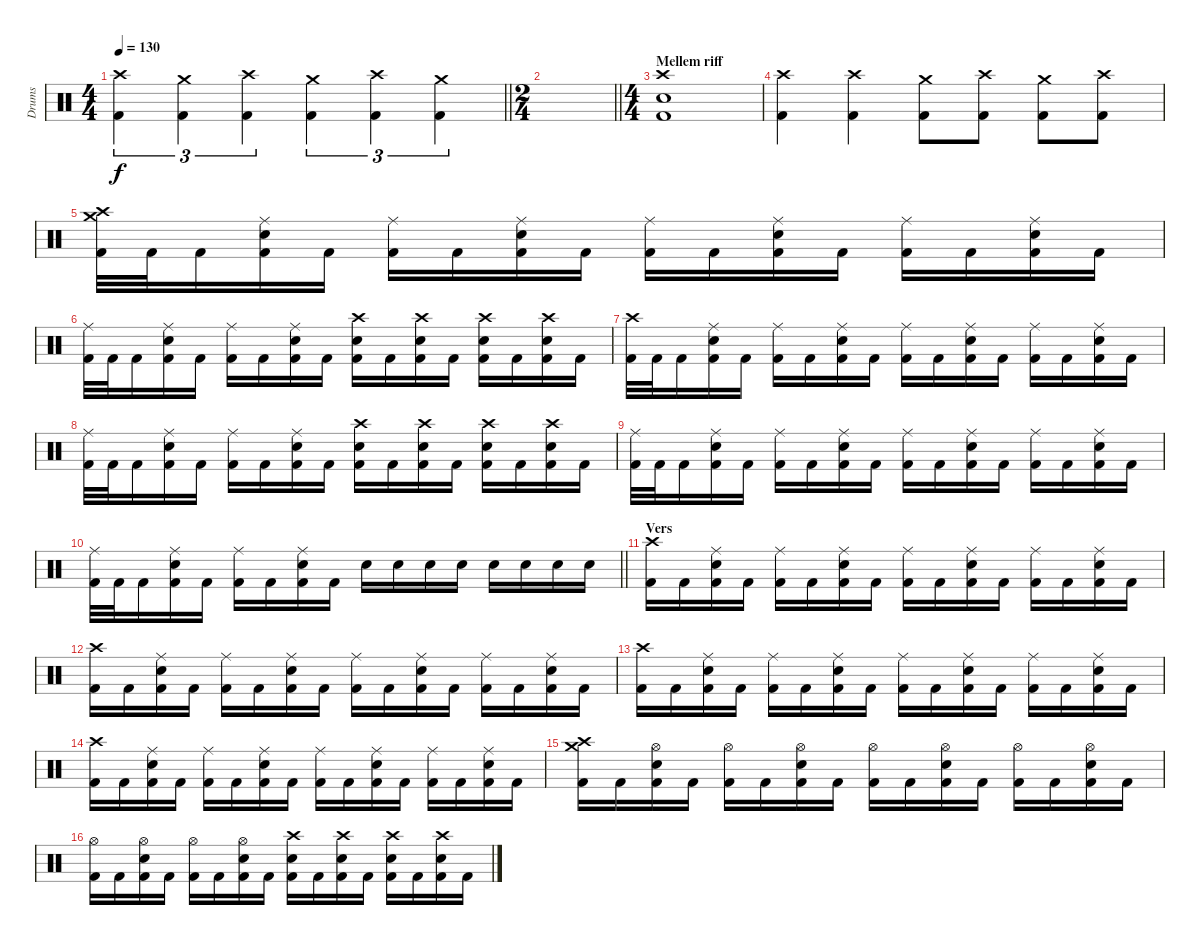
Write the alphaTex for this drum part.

\track ("Drums" "Drums") {instrument percussion}
\staff {score}
\articulation defaults
\ts (4 4)
\tempo 130
\clef neutral
\barLineRight lightlight
\ks c
("Crash high (hit)" "Kick (hit) 2").4{tu (3 2) dy f} ("Crash medium (hit)" "Kick (hit) 2").4{tu (3 2)} ("Crash high (hit)" "Kick (hit) 2").4{tu (3 2)} ("Crash medium (hit)" "Kick (hit) 2").4{tu (3 2)} ("Crash high (hit)" "Kick (hit) 2").4{tu (3 2)} ("Crash medium (hit)" "Kick (hit) 2").4{tu (3 2)} |
\ts (2 4)
\barLineRight lightlight
|
\ts (4 4)
\section ("" "Mellem riff")
("Crash high (hit)" "Snare (hit) 2" "Kick (hit) 2").1 |
("Crash high (hit)" "Kick (hit) 2").4 ("Crash high (hit)" "Kick (hit) 2").4 ("Crash medium (hit)" "Kick (hit) 2").8 ("Crash high (hit)" "Kick (hit) 2").8 ("Crash medium (hit)" "Kick (hit) 2").8 ("Crash high (hit)" "Kick (hit) 2").8 |
("Crash medium (hit)" "Crash high (hit)" "Kick (hit) 2").32 "Kick (hit) 2".32 "Kick (hit) 2".16 ("Ride (middle)" "Electric Snare (hit)" "Kick (hit) 2").16 "Kick (hit) 2".16 ("Ride (middle)" "Kick (hit) 2").16 "Kick (hit) 2".16 ("Ride (middle)" "Electric Snare (hit)" "Kick (hit) 2").16 "Kick (hit) 2".16 ("Ride (middle)" "Kick (hit) 2").16 "Kick (hit) 2".16 ("Ride (middle)" "Electric Snare (hit)" "Kick (hit) 2").16 "Kick (hit) 2".16 ("Ride (middle)" "Kick (hit) 2").16 "Kick (hit) 2".16 ("Ride (middle)" "Electric Snare (hit)" "Kick (hit) 2").16 "Kick (hit) 2".16 |
("Ride (middle)" "Kick (hit) 2").32 "Kick (hit) 2".32 "Kick (hit) 2".16 ("Ride (middle)" "Electric Snare (hit)" "Kick (hit) 2").16 "Kick (hit) 2".16 ("Ride (middle)" "Kick (hit) 2").16 "Kick (hit) 2".16 ("Ride (middle)" "Electric Snare (hit)" "Kick (hit) 2").16 "Kick (hit) 2".16 ("Crash high (hit)" "Electric Snare (hit)" "Kick (hit) 2").16 "Kick (hit) 2".16 ("Crash high (hit)" "Electric Snare (hit)" "Kick (hit) 2").16 "Kick (hit) 2".16 ("Crash high (hit)" "Electric Snare (hit)" "Kick (hit) 2").16 "Kick (hit) 2".16 ("Crash high (hit)" "Electric Snare (hit)" "Kick (hit) 2").16 "Kick (hit) 2".16 |
("Crash high (hit)" "Kick (hit) 2").32 "Kick (hit) 2".32 "Kick (hit) 2".16 ("Ride (middle)" "Electric Snare (hit)" "Kick (hit) 2").16 "Kick (hit) 2".16 ("Ride (middle)" "Kick (hit) 2").16 "Kick (hit) 2".16 ("Ride (middle)" "Electric Snare (hit)" "Kick (hit) 2").16 "Kick (hit) 2".16 ("Ride (middle)" "Kick (hit) 2").16 "Kick (hit) 2".16 ("Ride (middle)" "Electric Snare (hit)" "Kick (hit) 2").16 "Kick (hit) 2".16 ("Ride (middle)" "Kick (hit) 2").16 "Kick (hit) 2".16 ("Ride (middle)" "Electric Snare (hit)" "Kick (hit) 2").16 "Kick (hit) 2".16 |
("Ride (middle)" "Kick (hit) 2").32 "Kick (hit) 2".32 "Kick (hit) 2".16 ("Ride (middle)" "Electric Snare (hit)" "Kick (hit) 2").16 "Kick (hit) 2".16 ("Ride (middle)" "Kick (hit) 2").16 "Kick (hit) 2".16 ("Ride (middle)" "Electric Snare (hit)" "Kick (hit) 2").16 "Kick (hit) 2".16 ("Crash high (hit)" "Electric Snare (hit)" "Kick (hit) 2").16 "Kick (hit) 2".16 ("Crash high (hit)" "Electric Snare (hit)" "Kick (hit) 2").16 "Kick (hit) 2".16 ("Crash high (hit)" "Electric Snare (hit)" "Kick (hit) 2").16 "Kick (hit) 2".16 ("Crash high (hit)" "Electric Snare (hit)" "Kick (hit) 2").16 "Kick (hit) 2".16 |
("Ride (middle)" "Kick (hit) 2").32 "Kick (hit) 2".32 "Kick (hit) 2".16 ("Ride (middle)" "Electric Snare (hit)" "Kick (hit) 2").16 "Kick (hit) 2".16 ("Ride (middle)" "Kick (hit) 2").16 "Kick (hit) 2".16 ("Ride (middle)" "Electric Snare (hit)" "Kick (hit) 2").16 "Kick (hit) 2".16 ("Ride (middle)" "Kick (hit) 2").16 "Kick (hit) 2".16 ("Ride (middle)" "Electric Snare (hit)" "Kick (hit) 2").16 "Kick (hit) 2".16 ("Ride (middle)" "Kick (hit) 2").16 "Kick (hit) 2".16 ("Ride (middle)" "Electric Snare (hit)" "Kick (hit) 2").16 "Kick (hit) 2".16 |
\barLineRight lightlight
("Ride (middle)" "Kick (hit) 2").32 "Kick (hit) 2".32 "Kick (hit) 2".16 ("Ride (middle)" "Electric Snare (hit)" "Kick (hit) 2").16 "Kick (hit) 2".16 ("Ride (middle)" "Kick (hit) 2").16 "Kick (hit) 2".16 ("Ride (middle)" "Electric Snare (hit)" "Kick (hit) 2").16 "Kick (hit) 2".16 "Electric Snare (hit)".16 "Electric Snare (hit)".16 "Electric Snare (hit)".16 "Electric Snare (hit)".16 "Electric Snare (hit)".16 "Electric Snare (hit)".16 "Electric Snare (hit)".16 "Electric Snare (hit)".16 |
\section ("" "Vers")
("Crash high (hit)" "Kick (hit) 2").16 "Kick (hit) 2".16 ("Ride (middle)" "Electric Snare (hit)" "Kick (hit) 2").16 "Kick (hit) 2".16 ("Ride (middle)" "Kick (hit) 2").16 "Kick (hit) 2".16 ("Ride (middle)" "Electric Snare (hit)" "Kick (hit) 2").16 "Kick (hit) 2".16 ("Ride (middle)" "Kick (hit) 2").16 "Kick (hit) 2".16 ("Ride (middle)" "Electric Snare (hit)" "Kick (hit) 2").16 "Kick (hit) 2".16 ("Ride (middle)" "Kick (hit) 2").16 "Kick (hit) 2".16 ("Ride (middle)" "Electric Snare (hit)" "Kick (hit) 2").16 "Kick (hit) 2".16 |
("Crash high (hit)" "Kick (hit) 2").16 "Kick (hit) 2".16 ("Ride (middle)" "Electric Snare (hit)" "Kick (hit) 2").16 "Kick (hit) 2".16 ("Ride (middle)" "Kick (hit) 2").16 "Kick (hit) 2".16 ("Ride (middle)" "Electric Snare (hit)" "Kick (hit) 2").16 "Kick (hit) 2".16 ("Ride (middle)" "Kick (hit) 2").16 "Kick (hit) 2".16 ("Ride (middle)" "Electric Snare (hit)" "Kick (hit) 2").16 "Kick (hit) 2".16 ("Ride (middle)" "Kick (hit) 2").16 "Kick (hit) 2".16 ("Ride (middle)" "Electric Snare (hit)" "Kick (hit) 2").16 "Kick (hit) 2".16 |
("Crash high (hit)" "Kick (hit) 2").16 "Kick (hit) 2".16 ("Ride (middle)" "Electric Snare (hit)" "Kick (hit) 2").16 "Kick (hit) 2".16 ("Ride (middle)" "Kick (hit) 2").16 "Kick (hit) 2".16 ("Ride (middle)" "Electric Snare (hit)" "Kick (hit) 2").16 "Kick (hit) 2".16 ("Ride (middle)" "Kick (hit) 2").16 "Kick (hit) 2".16 ("Ride (middle)" "Electric Snare (hit)" "Kick (hit) 2").16 "Kick (hit) 2".16 ("Ride (middle)" "Kick (hit) 2").16 "Kick (hit) 2".16 ("Ride (middle)" "Electric Snare (hit)" "Kick (hit) 2").16 "Kick (hit) 2".16 |
("Crash high (hit)" "Kick (hit) 2").16 "Kick (hit) 2".16 ("Ride (middle)" "Electric Snare (hit)" "Kick (hit) 2").16 "Kick (hit) 2".16 ("Ride (middle)" "Kick (hit) 2").16 "Kick (hit) 2".16 ("Ride (middle)" "Electric Snare (hit)" "Kick (hit) 2").16 "Kick (hit) 2".16 ("Ride (middle)" "Kick (hit) 2").16 "Kick (hit) 2".16 ("Ride (middle)" "Electric Snare (hit)" "Kick (hit) 2").16 "Kick (hit) 2".16 ("Ride (middle)" "Kick (hit) 2").16 "Kick (hit) 2".16 ("Ride (middle)" "Electric Snare (hit)" "Kick (hit) 2").16 "Kick (hit) 2".16 |
("Crash medium (hit)" "Crash high (hit)" "Kick (hit) 2").16 "Kick (hit) 2".16 ("Hi-Hat (open)" "Electric Snare (hit)" "Kick (hit) 2").16 "Kick (hit) 2".16 ("Hi-Hat (open)" "Kick (hit) 2").16 "Kick (hit) 2".16 ("Hi-Hat (open)" "Electric Snare (hit)" "Kick (hit) 2").16 "Kick (hit) 2".16 ("Hi-Hat (open)" "Kick (hit) 2").16 "Kick (hit) 2".16 ("Hi-Hat (open)" "Electric Snare (hit)" "Kick (hit) 2").16 "Kick (hit) 2".16 ("Hi-Hat (open)" "Kick (hit) 2").16 "Kick (hit) 2".16 ("Hi-Hat (open)" "Electric Snare (hit)" "Kick (hit) 2").16 "Kick (hit) 2".16 |
("Hi-Hat (open)" "Kick (hit) 2").16 "Kick (hit) 2".16 ("Hi-Hat (open)" "Electric Snare (hit)" "Kick (hit) 2").16 "Kick (hit) 2".16 ("Hi-Hat (open)" "Kick (hit) 2").16 "Kick (hit) 2".16 ("Hi-Hat (open)" "Electric Snare (hit)" "Kick (hit) 2").16 "Kick (hit) 2".16 ("Crash high (hit)" "Electric Snare (hit)" "Kick (hit) 2").16 "Kick (hit) 2".16 ("Crash high (hit)" "Electric Snare (hit)" "Kick (hit) 2").16 "Kick (hit) 2".16 ("Crash high (hit)" "Electric Snare (hit)" "Kick (hit) 2").16 "Kick (hit) 2".16 ("Crash high (hit)" "Electric Snare (hit)" "Kick (hit) 2").16 "Kick (hit) 2".16
